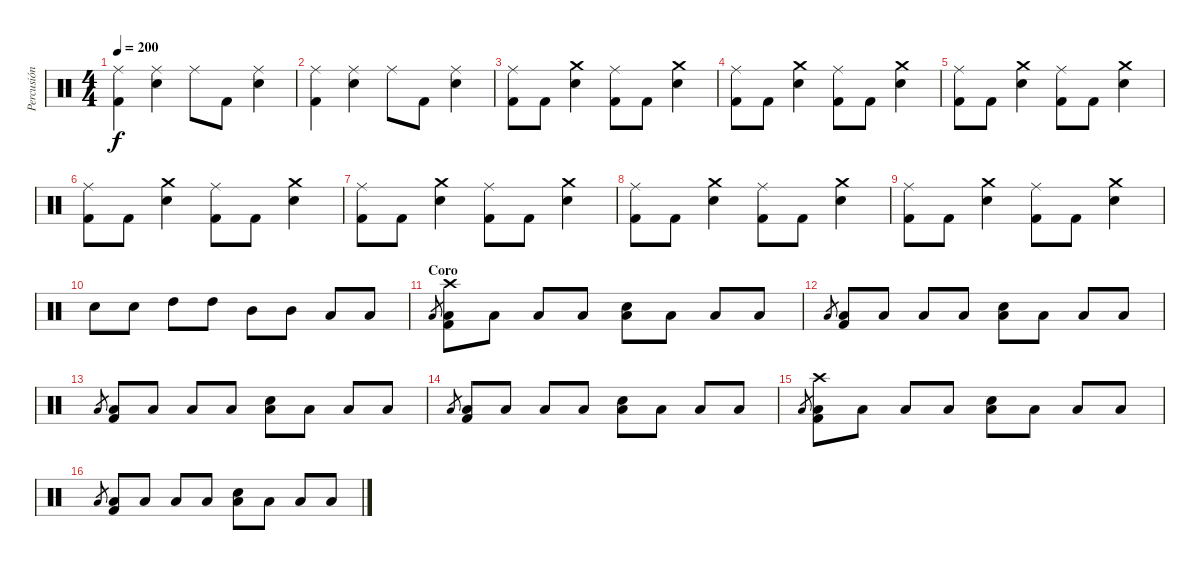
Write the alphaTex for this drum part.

\track ("Percusión" "Percusión") {instrument percussion}
\staff {score}
\articulation defaults
\ts (4 4)
\tempo 200
\clef neutral
\ks c
("Kick (hit) 2" "Ride (middle)").4{dy f} ("Ride (middle)" "Snare (hit) 2").4 "Ride (middle)".8 "Kick (hit) 2".8 ("Ride (middle)" "Snare (hit) 2").4 |
("Kick (hit) 2" "Ride (middle)").4 ("Ride (middle)" "Snare (hit) 2").4 "Ride (middle)".8 "Kick (hit) 2".8 ("Ride (middle)" "Snare (hit) 2").4 |
("Kick (hit) 2" "Ride (middle)").8 "Kick (hit) 2".8 ("Snare (hit) 2" "Crash medium (hit)").4 ("Kick (hit) 2" "Ride (middle)").8 "Kick (hit) 2".8 ("Snare (hit) 2" "Crash medium (hit)").4 |
("Kick (hit) 2" "Ride (middle)").8 "Kick (hit) 2".8 ("Snare (hit) 2" "Crash medium (hit)").4 ("Kick (hit) 2" "Ride (middle)").8 "Kick (hit) 2".8 ("Snare (hit) 2" "Crash medium (hit)").4 |
("Kick (hit) 2" "Ride (middle)").8 "Kick (hit) 2".8 ("Snare (hit) 2" "Crash medium (hit)").4 ("Kick (hit) 2" "Ride (middle)").8 "Kick (hit) 2".8 ("Snare (hit) 2" "Crash medium (hit)").4 |
("Kick (hit) 2" "Ride (middle)").8 "Kick (hit) 2".8 ("Snare (hit) 2" "Crash medium (hit)").4 ("Kick (hit) 2" "Ride (middle)").8 "Kick (hit) 2".8 ("Snare (hit) 2" "Crash medium (hit)").4 |
("Kick (hit) 2" "Ride (middle)").8 "Kick (hit) 2".8 ("Snare (hit) 2" "Crash medium (hit)").4 ("Kick (hit) 2" "Ride (middle)").8 "Kick (hit) 2".8 ("Snare (hit) 2" "Crash medium (hit)").4 |
("Kick (hit) 2" "Ride (middle)").8 "Kick (hit) 2".8 ("Snare (hit) 2" "Crash medium (hit)").4 ("Kick (hit) 2" "Ride (middle)").8 "Kick (hit) 2".8 ("Snare (hit) 2" "Crash medium (hit)").4 |
("Kick (hit) 2" "Ride (middle)").8 "Kick (hit) 2".8 ("Snare (hit) 2" "Crash medium (hit)").4 ("Kick (hit) 2" "Ride (middle)").8 "Kick (hit) 2".8 ("Snare (hit) 2" "Crash medium (hit)").4 |
"Snare (hit) 2".8 "Snare (hit) 2".8 "High Tom (hit)".8 "High Tom (hit)".8 "Mid Tom (hit)".8 "Mid Tom (hit)".8 "Low Tom (hit)".8 "Low Tom (hit)".8 |
\section ("" "Coro")
"Low Floor Tom (hit)".8{gr} ("Crash high (hit)" "Low Floor Tom (hit)" "Kick (hit) 2").8 "Low Floor Tom (hit)".8 "Low Floor Tom (hit)".8 "Low Floor Tom (hit)".8 ("Low Floor Tom (hit)" "Snare (hit) 2").8 "Low Floor Tom (hit)".8 "Low Floor Tom (hit)".8 "Low Floor Tom (hit)".8 |
"Low Floor Tom (hit)".8{gr} ("Low Floor Tom (hit)" "Kick (hit) 2").8 "Low Floor Tom (hit)".8 "Low Floor Tom (hit)".8 "Low Floor Tom (hit)".8 ("Low Floor Tom (hit)" "Snare (hit) 2").8 "Low Floor Tom (hit)".8 "Low Floor Tom (hit)".8 "Low Floor Tom (hit)".8 |
"Low Floor Tom (hit)".8{gr} ("Low Floor Tom (hit)" "Kick (hit) 2").8 "Low Floor Tom (hit)".8 "Low Floor Tom (hit)".8 "Low Floor Tom (hit)".8 ("Low Floor Tom (hit)" "Snare (hit) 2").8 "Low Floor Tom (hit)".8 "Low Floor Tom (hit)".8 "Low Floor Tom (hit)".8 |
"Low Floor Tom (hit)".8{gr} ("Low Floor Tom (hit)" "Kick (hit) 2").8 "Low Floor Tom (hit)".8 "Low Floor Tom (hit)".8 "Low Floor Tom (hit)".8 ("Low Floor Tom (hit)" "Snare (hit) 2").8 "Low Floor Tom (hit)".8 "Low Floor Tom (hit)".8 "Low Floor Tom (hit)".8 |
"Low Floor Tom (hit)".8{gr} ("Crash high (hit)" "Low Floor Tom (hit)" "Kick (hit) 2").8 "Low Floor Tom (hit)".8 "Low Floor Tom (hit)".8 "Low Floor Tom (hit)".8 ("Low Floor Tom (hit)" "Snare (hit) 2").8 "Low Floor Tom (hit)".8 "Low Floor Tom (hit)".8 "Low Floor Tom (hit)".8 |
"Low Floor Tom (hit)".8{gr} ("Low Floor Tom (hit)" "Kick (hit) 2").8 "Low Floor Tom (hit)".8 "Low Floor Tom (hit)".8 "Low Floor Tom (hit)".8 ("Low Floor Tom (hit)" "Snare (hit) 2").8 "Low Floor Tom (hit)".8 "Low Floor Tom (hit)".8 "Low Floor Tom (hit)".8
